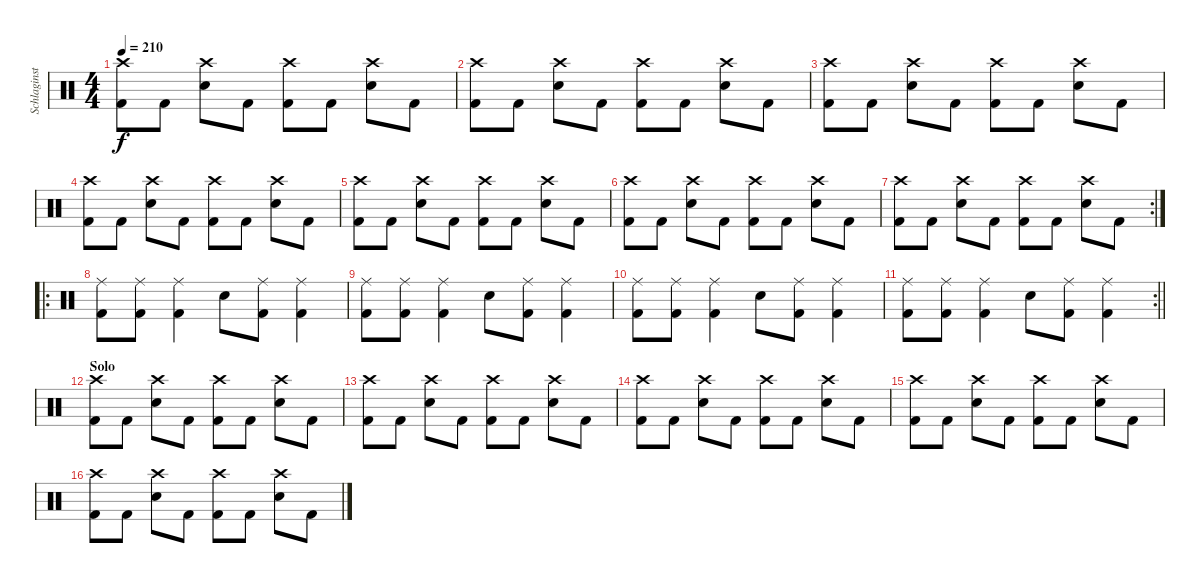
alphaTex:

\track ("Schlaginstrumente - Auswahl" "Schlaginst") {instrument percussion}
\staff {score}
\articulation defaults
\ts (4 4)
\tempo 210
\clef neutral
\ks c
("Crash high (hit)" "Kick (hit) 2").8{dy f} "Kick (hit) 2".8 ("Crash high (hit)" "Snare (hit) 2").8 "Kick (hit) 2".8 ("Crash high (hit)" "Kick (hit) 2").8 "Kick (hit) 2".8 ("Crash high (hit)" "Snare (hit) 2").8 "Kick (hit) 2".8 |
("Crash high (hit)" "Kick (hit) 2").8 "Kick (hit) 2".8 ("Crash high (hit)" "Snare (hit) 2").8 "Kick (hit) 2".8 ("Crash high (hit)" "Kick (hit) 2").8 "Kick (hit) 2".8 ("Crash high (hit)" "Snare (hit) 2").8 "Kick (hit) 2".8 |
("Crash high (hit)" "Kick (hit) 2").8 "Kick (hit) 2".8 ("Crash high (hit)" "Snare (hit) 2").8 "Kick (hit) 2".8 ("Crash high (hit)" "Kick (hit) 2").8 "Kick (hit) 2".8 ("Crash high (hit)" "Snare (hit) 2").8 "Kick (hit) 2".8 |
("Crash high (hit)" "Kick (hit) 2").8 "Kick (hit) 2".8 ("Crash high (hit)" "Snare (hit) 2").8 "Kick (hit) 2".8 ("Crash high (hit)" "Kick (hit) 2").8 "Kick (hit) 2".8 ("Crash high (hit)" "Snare (hit) 2").8 "Kick (hit) 2".8 |
("Crash high (hit)" "Kick (hit) 2").8 "Kick (hit) 2".8 ("Crash high (hit)" "Snare (hit) 2").8 "Kick (hit) 2".8 ("Crash high (hit)" "Kick (hit) 2").8 "Kick (hit) 2".8 ("Crash high (hit)" "Snare (hit) 2").8 "Kick (hit) 2".8 |
("Crash high (hit)" "Kick (hit) 2").8 "Kick (hit) 2".8 ("Crash high (hit)" "Snare (hit) 2").8 "Kick (hit) 2".8 ("Crash high (hit)" "Kick (hit) 2").8 "Kick (hit) 2".8 ("Crash high (hit)" "Snare (hit) 2").8 "Kick (hit) 2".8 |
\rc 2
("Crash high (hit)" "Kick (hit) 2").8 "Kick (hit) 2".8 ("Crash high (hit)" "Snare (hit) 2").8 "Kick (hit) 2".8 ("Crash high (hit)" "Kick (hit) 2").8 "Kick (hit) 2".8 ("Crash high (hit)" "Snare (hit) 2").8 "Kick (hit) 2".8 |
\ro
("Ride (middle)" "Kick (hit) 2").8 ("Ride (middle)" "Kick (hit) 2").8 ("Ride (middle)" "Kick (hit) 2").4 "Snare (hit) 2".8 ("Ride (middle)" "Kick (hit) 2").8 ("Ride (middle)" "Kick (hit) 2").4 |
("Ride (middle)" "Kick (hit) 2").8 ("Ride (middle)" "Kick (hit) 2").8 ("Ride (middle)" "Kick (hit) 2").4 "Snare (hit) 2".8 ("Ride (middle)" "Kick (hit) 2").8 ("Ride (middle)" "Kick (hit) 2").4 |
("Ride (middle)" "Kick (hit) 2").8 ("Ride (middle)" "Kick (hit) 2").8 ("Ride (middle)" "Kick (hit) 2").4 "Snare (hit) 2".8 ("Ride (middle)" "Kick (hit) 2").8 ("Ride (middle)" "Kick (hit) 2").4 |
\rc 2
\barLineRight lightlight
("Ride (middle)" "Kick (hit) 2").8 ("Ride (middle)" "Kick (hit) 2").8 ("Ride (middle)" "Kick (hit) 2").4 "Snare (hit) 2".8 ("Ride (middle)" "Kick (hit) 2").8 ("Ride (middle)" "Kick (hit) 2").4 |
\section ("" "Solo")
("Crash high (hit)" "Kick (hit) 2").8 "Kick (hit) 2".8 ("Crash high (hit)" "Snare (hit) 2").8 "Kick (hit) 2".8 ("Crash high (hit)" "Kick (hit) 2").8 "Kick (hit) 2".8 ("Crash high (hit)" "Snare (hit) 2").8 "Kick (hit) 2".8 |
("Crash high (hit)" "Kick (hit) 2").8 "Kick (hit) 2".8 ("Crash high (hit)" "Snare (hit) 2").8 "Kick (hit) 2".8 ("Crash high (hit)" "Kick (hit) 2").8 "Kick (hit) 2".8 ("Crash high (hit)" "Snare (hit) 2").8 "Kick (hit) 2".8 |
("Crash high (hit)" "Kick (hit) 2").8 "Kick (hit) 2".8 ("Crash high (hit)" "Snare (hit) 2").8 "Kick (hit) 2".8 ("Crash high (hit)" "Kick (hit) 2").8 "Kick (hit) 2".8 ("Crash high (hit)" "Snare (hit) 2").8 "Kick (hit) 2".8 |
("Crash high (hit)" "Kick (hit) 2").8 "Kick (hit) 2".8 ("Crash high (hit)" "Snare (hit) 2").8 "Kick (hit) 2".8 ("Crash high (hit)" "Kick (hit) 2").8 "Kick (hit) 2".8 ("Crash high (hit)" "Snare (hit) 2").8 "Kick (hit) 2".8 |
("Crash high (hit)" "Kick (hit) 2").8 "Kick (hit) 2".8 ("Crash high (hit)" "Snare (hit) 2").8 "Kick (hit) 2".8 ("Crash high (hit)" "Kick (hit) 2").8 "Kick (hit) 2".8 ("Crash high (hit)" "Snare (hit) 2").8 "Kick (hit) 2".8
